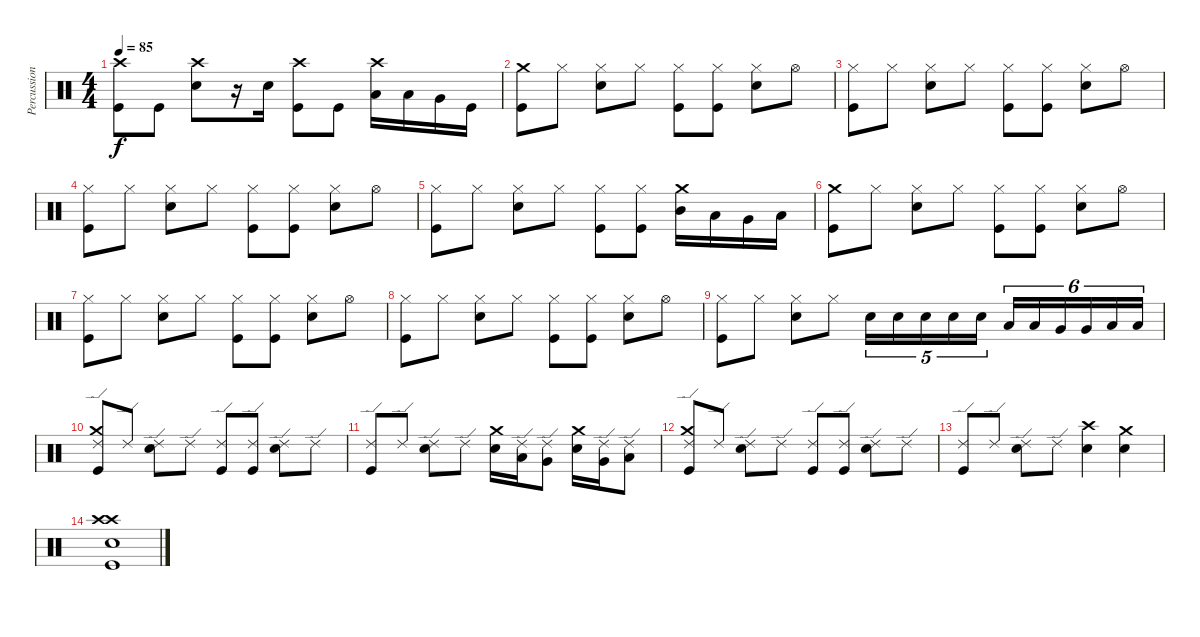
\track ("Percussions" "Percussion") {instrument percussion}
\staff {score}
\articulation defaults
\ts (4 4)
\tempo 85
\clef neutral
\ks c
("Crash high (hit)" "Kick (hit)").8{dy f} "Kick (hit)".8 ("Crash high (hit)" "Electric Snare (hit)").8 r.16 "Electric Snare (hit)".16 ("Crash high (hit)" "Kick (hit)").8 "Kick (hit)".8 ("Crash high (hit)" "Low Tom (hit)").16 "Low Tom (hit)".16 "Very Low Tom (hit)".16 "Kick (hit)".16 |
("Crash medium (hit)" "Kick (hit)").8 "Hi-Hat (closed)".8 ("Hi-Hat (closed)" "Electric Snare (hit)").8 "Hi-Hat (closed)".8 ("Hi-Hat (closed)" "Kick (hit)").8 ("Hi-Hat (closed)" "Kick (hit)").8 ("Hi-Hat (closed)" "Electric Snare (hit)").8 "Hi-Hat (open)".8 |
("Hi-Hat (closed)" "Kick (hit)").8 "Hi-Hat (closed)".8 ("Hi-Hat (closed)" "Electric Snare (hit)").8 "Hi-Hat (closed)".8 ("Hi-Hat (closed)" "Kick (hit)").8 ("Hi-Hat (closed)" "Kick (hit)").8 ("Hi-Hat (closed)" "Electric Snare (hit)").8 "Hi-Hat (open)".8 |
("Hi-Hat (closed)" "Kick (hit)").8 "Hi-Hat (closed)".8 ("Hi-Hat (closed)" "Electric Snare (hit)").8 "Hi-Hat (closed)".8 ("Hi-Hat (closed)" "Kick (hit)").8 ("Hi-Hat (closed)" "Kick (hit)").8 ("Hi-Hat (closed)" "Electric Snare (hit)").8 "Hi-Hat (open)".8 |
("Hi-Hat (closed)" "Kick (hit)").8 "Hi-Hat (closed)".8 ("Hi-Hat (closed)" "Electric Snare (hit)").8 "Hi-Hat (closed)".8 ("Hi-Hat (closed)" "Kick (hit)").8 ("Hi-Hat (closed)" "Kick (hit)").8 ("Crash medium (hit)" "Mid Tom (hit)").16 "Low Tom (hit)".16 "Very Low Tom (hit)".16 "Low Floor Tom (hit)".16 |
("Crash medium (hit)" "Kick (hit)").8 "Hi-Hat (closed)".8 ("Hi-Hat (closed)" "Electric Snare (hit)").8 "Hi-Hat (closed)".8 ("Hi-Hat (closed)" "Kick (hit)").8 ("Hi-Hat (closed)" "Kick (hit)").8 ("Hi-Hat (closed)" "Electric Snare (hit)").8 "Hi-Hat (open)".8 |
("Hi-Hat (closed)" "Kick (hit)").8 "Hi-Hat (closed)".8 ("Hi-Hat (closed)" "Electric Snare (hit)").8 "Hi-Hat (closed)".8 ("Hi-Hat (closed)" "Kick (hit)").8 ("Hi-Hat (closed)" "Kick (hit)").8 ("Hi-Hat (closed)" "Electric Snare (hit)").8 "Hi-Hat (open)".8 |
("Hi-Hat (closed)" "Kick (hit)").8 "Hi-Hat (closed)".8 ("Hi-Hat (closed)" "Electric Snare (hit)").8 "Hi-Hat (closed)".8 ("Hi-Hat (closed)" "Kick (hit)").8 ("Hi-Hat (closed)" "Kick (hit)").8 ("Hi-Hat (closed)" "Electric Snare (hit)").8 "Hi-Hat (open)".8 |
("Hi-Hat (closed)" "Kick (hit)").8 "Hi-Hat (closed)".8 ("Hi-Hat (closed)" "Electric Snare (hit)").8 "Hi-Hat (closed)".8 "Electric Snare (hit)".16{tu (5 4)} "Electric Snare (hit)".16{tu (5 4)} "Electric Snare (hit)".16{tu (5 4)} "Electric Snare (hit)".16{tu (5 4)} "Electric Snare (hit)".16{tu (5 4)} "Low Tom (hit)".16{tu (6 4)} "Low Tom (hit)".16{tu (6 4)} "Very Low Tom (hit)".16{tu (6 4)} "Very Low Tom (hit)".16{tu (6 4)} "Low Floor Tom (hit)".16{tu (6 4)} "Low Floor Tom (hit)".16{tu (6 4)} |
("Ride (edge) 2" "Crash medium (hit)" "Kick (hit)").8 "Ride (edge) 2".8 ("Ride (edge) 2" "Electric Snare (hit)").8 "Ride (edge) 2".8 ("Ride (edge) 2" "Kick (hit)").8 ("Ride (edge) 2" "Kick (hit)").8 ("Ride (edge) 2" "Electric Snare (hit)").8 "Ride (edge) 2".8 |
("Ride (edge) 2" "Kick (hit)").8 "Ride (edge) 2".8 ("Ride (edge) 2" "Electric Snare (hit)").8 "Ride (edge) 2".8 ("Crash medium (hit)" "Electric Snare (hit)").16 ("Ride (edge) 2" "Low Tom (hit)").16 ("Ride (edge) 2" "Very Low Tom (hit)").8 ("Crash medium (hit)" "Electric Snare (hit)").16 ("Ride (edge) 2" "Very Low Tom (hit)").16 ("Ride (edge) 2" "Low Floor Tom (hit)").8 |
("Ride (edge) 2" "Crash medium (hit)" "Kick (hit)").8 "Ride (edge) 2".8 ("Ride (edge) 2" "Electric Snare (hit)").8 "Ride (edge) 2".8 ("Ride (edge) 2" "Kick (hit)").8 ("Ride (edge) 2" "Kick (hit)").8 ("Ride (edge) 2" "Electric Snare (hit)").8 "Ride (edge) 2".8 |
("Ride (edge) 2" "Kick (hit)").8 "Ride (edge) 2".8 ("Ride (edge) 2" "Electric Snare (hit)").8 "Ride (edge) 2".8 ("Crash high (hit)" "Electric Snare (hit)").4 ("Crash medium (hit)" "Electric Snare (hit)").4 |
("Crash high (hit)" "Crash high (hit)" "Electric Snare (hit)" "Kick (hit)").1
